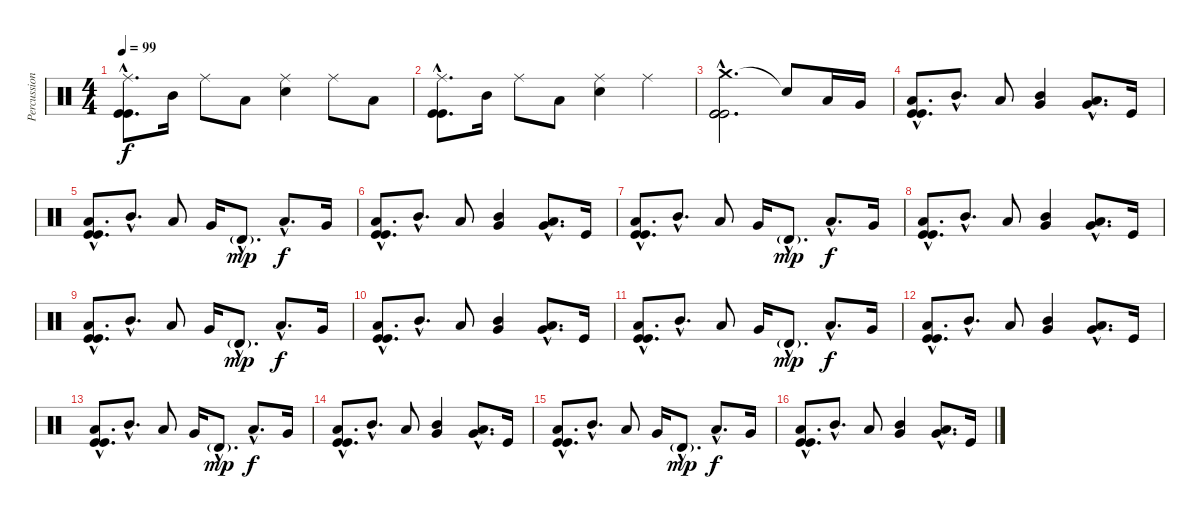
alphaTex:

\track ("Percussions2" "Percussion") {instrument percussion}
\staff {score}
\articulation defaults
\ts (4 4)
\tempo 99
\clef neutral
\ks c
("Ride (middle)"{hac} "Kick (hit)"{hac} "Kick (hit)"{hac}).8{d dy f} "Mid Tom (hit)".16 "Ride (middle)".8 "Low Tom (hit)".8 ("Electric Snare (hit)" "Ride (middle)").4 "Ride (middle)".8 "Low Tom (hit)".8 |
("Ride (middle)"{hac} "Kick (hit)"{hac} "Kick (hit)"{hac}).8{d} "Mid Tom (hit)".16 "Ride (middle)".8 "Low Tom (hit)".8 ("Electric Snare (hit)" "Ride (middle)").4 "Ride (middle)".4 |
("Crash medium (hit)"{hac} "Kick (hit)"{hac} "Kick (hit)"{hac} "Kick (hit)"{hac}).2{d} "Snare (hit)"{t}.8 "Low Tom (hit)".16 "Very Low Tom (hit)".16 |
("Low Floor Tom (hit)"{hac} "Kick (hit)"{hac} "Kick (hit)"{hac}).8{d} "Mid Tom (hit)"{hac}.8{d} "Low Tom (hit)".8 ("Very Low Tom (hit)" "Mid Tom (hit)").4 ("Very Low Tom (hit)"{hac} "Low Floor Tom (hit)"{hac}).8{d} "Kick (hit)".16 |
("Low Floor Tom (hit)"{hac} "Kick (hit)"{hac} "Kick (hit)"{hac}).8{d} "Mid Tom (hit)"{hac}.8{d} "Low Tom (hit)".8 "Very Low Tom (hit)".16 "Timbale high (hit)"{g hac}.8{d dy mp} "Low Floor Tom (hit)"{hac}.8{d dy f} "Very Low Tom (hit)".16 |
("Low Floor Tom (hit)"{hac} "Kick (hit)"{hac} "Kick (hit)"{hac}).8{d} "Mid Tom (hit)"{hac}.8{d} "Low Tom (hit)".8 ("Very Low Tom (hit)" "Mid Tom (hit)").4 ("Very Low Tom (hit)"{hac} "Low Floor Tom (hit)"{hac}).8{d} "Kick (hit)".16 |
("Low Floor Tom (hit)"{hac} "Kick (hit)"{hac} "Kick (hit)"{hac}).8{d} "Mid Tom (hit)"{hac}.8{d} "Low Tom (hit)".8 "Very Low Tom (hit)".16 "Timbale high (hit)"{g hac}.8{d dy mp} "Low Floor Tom (hit)"{hac}.8{d dy f} "Very Low Tom (hit)".16 |
("Low Floor Tom (hit)"{hac} "Kick (hit)"{hac} "Kick (hit)"{hac}).8{d} "Mid Tom (hit)"{hac}.8{d} "Low Tom (hit)".8 ("Very Low Tom (hit)" "Mid Tom (hit)").4 ("Very Low Tom (hit)"{hac} "Low Floor Tom (hit)"{hac}).8{d} "Kick (hit)".16 |
("Low Floor Tom (hit)"{hac} "Kick (hit)"{hac} "Kick (hit)"{hac}).8{d} "Mid Tom (hit)"{hac}.8{d} "Low Tom (hit)".8 "Very Low Tom (hit)".16 "Timbale high (hit)"{g hac}.8{d dy mp} "Low Floor Tom (hit)"{hac}.8{d dy f} "Very Low Tom (hit)".16 |
("Low Floor Tom (hit)"{hac} "Kick (hit)"{hac} "Kick (hit)"{hac}).8{d} "Mid Tom (hit)"{hac}.8{d} "Low Tom (hit)".8 ("Very Low Tom (hit)" "Mid Tom (hit)").4 ("Very Low Tom (hit)"{hac} "Low Floor Tom (hit)"{hac}).8{d} "Kick (hit)".16 |
("Low Floor Tom (hit)"{hac} "Kick (hit)"{hac} "Kick (hit)"{hac}).8{d} "Mid Tom (hit)"{hac}.8{d} "Low Tom (hit)".8 "Very Low Tom (hit)".16 "Timbale high (hit)"{g hac}.8{d dy mp} "Low Floor Tom (hit)"{hac}.8{d dy f} "Very Low Tom (hit)".16 |
("Low Floor Tom (hit)"{hac} "Kick (hit)"{hac} "Kick (hit)"{hac}).8{d} "Mid Tom (hit)"{hac}.8{d} "Low Tom (hit)".8 ("Very Low Tom (hit)" "Mid Tom (hit)").4 ("Very Low Tom (hit)"{hac} "Low Floor Tom (hit)"{hac}).8{d} "Kick (hit)".16 |
("Low Floor Tom (hit)"{hac} "Kick (hit)"{hac} "Kick (hit)"{hac}).8{d} "Mid Tom (hit)"{hac}.8{d} "Low Tom (hit)".8 "Very Low Tom (hit)".16 "Timbale high (hit)"{g hac}.8{d dy mp} "Low Floor Tom (hit)"{hac}.8{d dy f} "Very Low Tom (hit)".16 |
("Low Floor Tom (hit)"{hac} "Kick (hit)"{hac} "Kick (hit)"{hac}).8{d} "Mid Tom (hit)"{hac}.8{d} "Low Tom (hit)".8 ("Very Low Tom (hit)" "Mid Tom (hit)").4 ("Very Low Tom (hit)"{hac} "Low Floor Tom (hit)"{hac}).8{d} "Kick (hit)".16 |
("Low Floor Tom (hit)"{hac} "Kick (hit)"{hac} "Kick (hit)"{hac}).8{d} "Mid Tom (hit)"{hac}.8{d} "Low Tom (hit)".8 "Very Low Tom (hit)".16 "Timbale high (hit)"{g hac}.8{d dy mp} "Low Floor Tom (hit)"{hac}.8{d dy f} "Very Low Tom (hit)".16 |
("Low Floor Tom (hit)"{hac} "Kick (hit)"{hac} "Kick (hit)"{hac}).8{d} "Mid Tom (hit)"{hac}.8{d} "Low Tom (hit)".8 ("Very Low Tom (hit)" "Mid Tom (hit)").4 ("Very Low Tom (hit)"{hac} "Low Floor Tom (hit)"{hac}).8{d} "Kick (hit)".16
